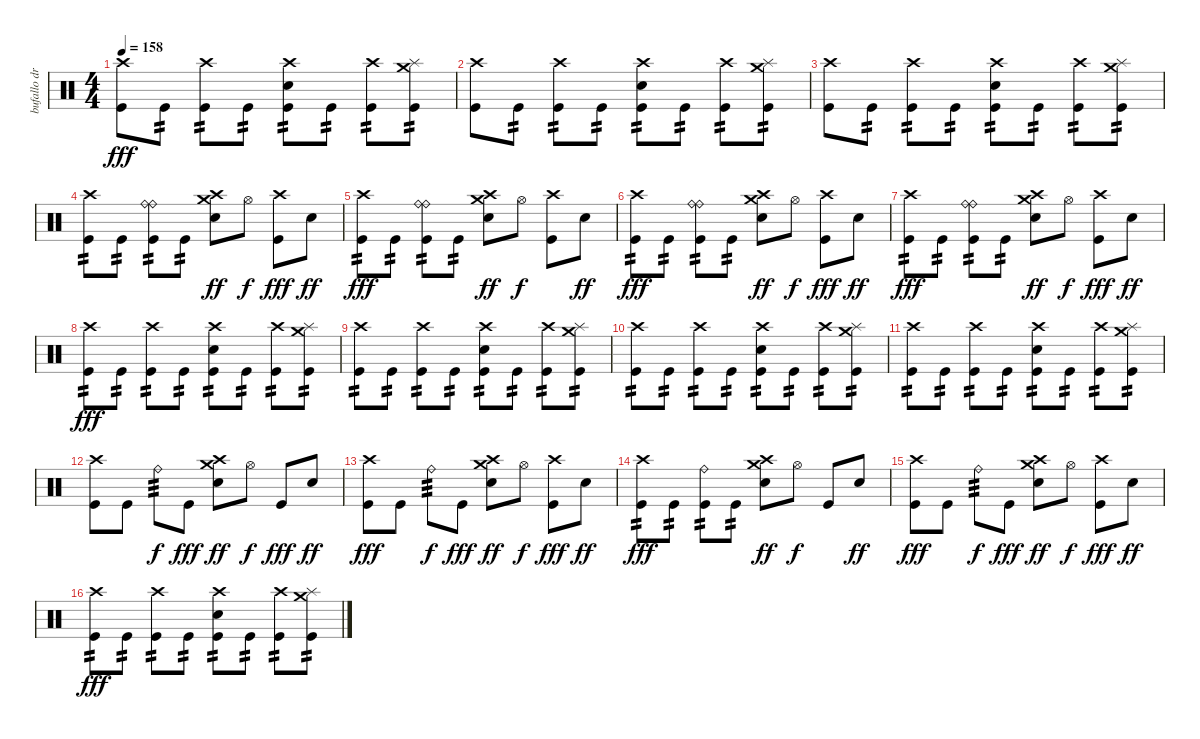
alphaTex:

\track ("bufallo drums" "bufallo dr") {instrument percussion}
\staff {score}
\articulation defaults
\ts (4 4)
\tempo 158
\clef neutral
\ks c
("Crash high (hit)" "Kick (hit)").8{dy fff} "Kick (hit)".8{tp 2} ("Crash high (hit)" "Kick (hit)").8{tp 2} "Kick (hit)".8{tp 2} ("Crash high (hit)" "Electric Snare (hit)" "Kick (hit)").8{tp 2} "Kick (hit)".8{tp 2} ("Crash high (hit)" "Kick (hit)").8{tp 2} ("Splash (hit)" "Crash medium (hit)" "Kick (hit)").8{tp 2} |
("Crash high (hit)" "Kick (hit)").8 "Kick (hit)".8{tp 2} ("Crash high (hit)" "Kick (hit)").8{tp 2} "Kick (hit)".8{tp 2} ("Crash high (hit)" "Electric Snare (hit)" "Kick (hit)").8{tp 2} "Kick (hit)".8{tp 2} ("Crash high (hit)" "Kick (hit)").8{tp 2} ("Splash (hit)" "Crash medium (hit)" "Kick (hit)").8{tp 2} |
("Crash high (hit)" "Kick (hit)").8 "Kick (hit)".8{tp 2} ("Crash high (hit)" "Kick (hit)").8{tp 2} "Kick (hit)".8{tp 2} ("Crash high (hit)" "Electric Snare (hit)" "Kick (hit)").8{tp 2} "Kick (hit)".8{tp 2} ("Crash high (hit)" "Kick (hit)").8{tp 2} ("Splash (hit)" "Crash medium (hit)" "Kick (hit)").8{tp 2} |
("Crash high (hit)" "Kick (hit)").8{tp 2} "Kick (hit)".8{tp 2} ("Ride (bell)" "Ride (bell)" "Kick (hit)").8{tp 2} "Kick (hit)".8{tp 2} ("Crash medium (hit)" "Crash high (hit)" "Electric Snare (hit)").8{dy ff} "Hi-Hat (open)".8{dy f} ("Crash high (hit)" "Kick (hit)").8{dy fff} "Electric Snare (hit)".8{dy ff} |
("Crash high (hit)" "Kick (hit)").8{tp 2 dy fff} "Kick (hit)".8{tp 2} ("Ride (bell)" "Ride (bell)" "Kick (hit)").8{tp 2} "Kick (hit)".8{tp 2} ("Crash medium (hit)" "Crash high (hit)" "Electric Snare (hit)").8{dy ff} "Hi-Hat (open)".8{dy f} ("Crash high (hit)" "Kick (hit)").8 "Electric Snare (hit)".8{dy ff} |
("Crash high (hit)" "Kick (hit)").8{tp 2 dy fff} "Kick (hit)".8{tp 2} ("Ride (bell)" "Ride (bell)" "Kick (hit)").8{tp 2} "Kick (hit)".8{tp 2} ("Crash medium (hit)" "Crash high (hit)" "Electric Snare (hit)").8{dy ff} "Hi-Hat (open)".8{dy f} ("Crash high (hit)" "Kick (hit)").8{dy fff} "Electric Snare (hit)".8{dy ff} |
("Crash high (hit)" "Kick (hit)").8{tp 2 dy fff} "Kick (hit)".8{tp 2} ("Ride (bell)" "Ride (bell)" "Kick (hit)").8{tp 2} "Kick (hit)".8{tp 2} ("Crash medium (hit)" "Crash high (hit)" "Electric Snare (hit)").8{dy ff} "Hi-Hat (open)".8{dy f} ("Crash high (hit)" "Kick (hit)").8{dy fff} "Electric Snare (hit)".8{dy ff} |
("Crash high (hit)" "Kick (hit)").8{tp 2 dy fff} "Kick (hit)".8{tp 2} ("Crash high (hit)" "Kick (hit)").8{tp 2} "Kick (hit)".8{tp 2} ("Crash high (hit)" "Electric Snare (hit)" "Kick (hit)").8{tp 2} "Kick (hit)".8{tp 2} ("Crash high (hit)" "Kick (hit)").8{tp 2} ("Splash (hit)" "Crash medium (hit)" "Kick (hit)").8{tp 2} |
("Crash high (hit)" "Kick (hit)").8{tp 2} "Kick (hit)".8{tp 2} ("Crash high (hit)" "Kick (hit)").8{tp 2} "Kick (hit)".8{tp 2} ("Crash high (hit)" "Electric Snare (hit)" "Kick (hit)").8{tp 2} "Kick (hit)".8{tp 2} ("Crash high (hit)" "Kick (hit)").8{tp 2} ("Splash (hit)" "Crash medium (hit)" "Kick (hit)").8{tp 2} |
("Crash high (hit)" "Kick (hit)").8{tp 2} "Kick (hit)".8{tp 2} ("Crash high (hit)" "Kick (hit)").8{tp 2} "Kick (hit)".8{tp 2} ("Crash high (hit)" "Electric Snare (hit)" "Kick (hit)").8{tp 2} "Kick (hit)".8{tp 2} ("Crash high (hit)" "Kick (hit)").8{tp 2} ("Splash (hit)" "Crash medium (hit)" "Kick (hit)").8{tp 2} |
("Crash high (hit)" "Kick (hit)").8{tp 2} "Kick (hit)".8{tp 2} ("Crash high (hit)" "Kick (hit)").8{tp 2} "Kick (hit)".8{tp 2} ("Crash high (hit)" "Electric Snare (hit)" "Kick (hit)").8{tp 2} "Kick (hit)".8{tp 2} ("Crash high (hit)" "Kick (hit)").8{tp 2} ("Splash (hit)" "Crash medium (hit)" "Kick (hit)").8{tp 2} |
("Crash high (hit)" "Kick (hit)").8 "Kick (hit)".8 "Ride (bell)".8{tp 3 dy f} "Kick (hit)".8{dy fff} ("Crash medium (hit)" "Crash high (hit)" "Electric Snare (hit)").8{dy ff} "Hi-Hat (open)".8{dy f} "Kick (hit)".8{dy fff} "Electric Snare (hit)".8{dy ff} |
("Crash high (hit)" "Kick (hit)").8{dy fff} "Kick (hit)".8 "Ride (bell)".8{tp 3 dy f} "Kick (hit)".8{dy fff} ("Crash medium (hit)" "Crash high (hit)" "Electric Snare (hit)").8{dy ff} "Hi-Hat (open)".8{dy f} ("Crash high (hit)" "Kick (hit)").8{dy fff} "Electric Snare (hit)".8{dy ff} |
("Crash high (hit)" "Kick (hit)").8{tp 2 dy fff} "Kick (hit)".8{tp 2} ("Ride (bell)" "Kick (hit)").8{tp 2} "Kick (hit)".8{tp 2} ("Crash medium (hit)" "Crash high (hit)" "Electric Snare (hit)").8{dy ff} "Hi-Hat (open)".8{dy f} "Kick (hit)".8 "Electric Snare (hit)".8{dy ff} |
("Crash high (hit)" "Kick (hit)").8{dy fff} "Kick (hit)".8 "Ride (bell)".8{tp 3 dy f} "Kick (hit)".8{dy fff} ("Crash medium (hit)" "Crash high (hit)" "Electric Snare (hit)").8{dy ff} "Hi-Hat (open)".8{dy f} ("Crash high (hit)" "Kick (hit)").8{dy fff} "Electric Snare (hit)".8{dy ff} |
("Crash high (hit)" "Kick (hit)").8{tp 2 dy fff} "Kick (hit)".8{tp 2} ("Crash high (hit)" "Kick (hit)").8{tp 2} "Kick (hit)".8{tp 2} ("Crash high (hit)" "Electric Snare (hit)" "Kick (hit)").8{tp 2} "Kick (hit)".8{tp 2} ("Crash high (hit)" "Kick (hit)").8{tp 2} ("Splash (hit)" "Crash medium (hit)" "Kick (hit)").8{tp 2}
